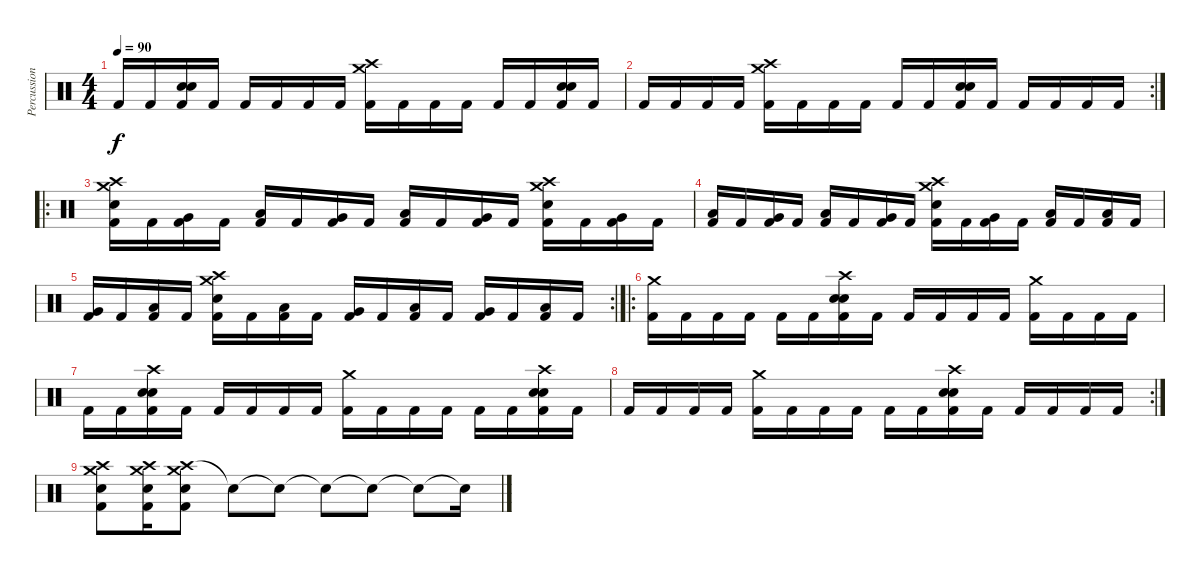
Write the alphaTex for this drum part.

\track ("Percussions" "Percussion") {instrument percussion}
\staff {score}
\articulation defaults
\ts (4 4)
\tempo 90
\clef neutral
\ks c "Kick (hit) 2".16{dy f} "Kick (hit) 2".16
("Electric Snare (hit)" "Snare (hit) 2" "Kick (hit) 2").16 "Kick (hit) 2".16 "Kick (hit) 2".16 "Kick (hit) 2".16 "Kick (hit) 2".16 "Kick (hit) 2".16 ("Crash medium (hit)" "Crash high (hit)" "Kick (hit) 2").16 "Kick (hit) 2".16 "Kick (hit) 2".16 "Kick (hit) 2".16 "Kick (hit) 2".16 "Kick (hit) 2".16 ("Electric Snare (hit)" "Snare (hit) 2" "Kick (hit) 2").16 "Kick (hit) 2".16 |
\rc 2 "Kick (hit) 2".16 "Kick (hit) 2".16 "Kick (hit) 2".16 "Kick (hit) 2".16
("Crash medium (hit)" "Crash high (hit)" "Kick (hit) 2").16 "Kick (hit) 2".16 "Kick (hit) 2".16 "Kick (hit) 2".16 "Kick (hit) 2".16 "Kick (hit) 2".16 ("Electric Snare (hit)" "Snare (hit) 2" "Kick (hit) 2").16 "Kick (hit) 2".16 "Kick (hit) 2".16 "Kick (hit) 2".16 "Kick (hit) 2".16 "Kick (hit) 2".16 |
\ro
("Electric Snare (hit)" "Crash medium (hit)" "Crash high (hit)" "Kick (hit) 2").16 "Kick (hit) 2".16 ("Very Low Tom (hit)" "Kick (hit) 2").16 "Kick (hit) 2".16 ("Low Tom (hit)" "Kick (hit) 2").16 "Kick (hit) 2".16 ("Very Low Tom (hit)" "Kick (hit) 2").16 "Kick (hit) 2".16 ("Low Tom (hit)" "Kick (hit) 2").16 "Kick (hit) 2".16 ("Very Low Tom (hit)" "Kick (hit) 2").16 "Kick (hit) 2".16 ("Electric Snare (hit)" "Crash medium (hit)" "Crash high (hit)" "Kick (hit) 2").16 "Kick (hit) 2".16 ("Very Low Tom (hit)" "Kick (hit) 2").16 "Kick (hit) 2".16 |
("Low Tom (hit)" "Kick (hit) 2").16 "Kick (hit) 2".16 ("Very Low Tom (hit)" "Kick (hit) 2").16 "Kick (hit) 2".16 ("Low Floor Tom (hit)" "Kick (hit) 2").16 "Kick (hit) 2".16 ("Very Low Tom (hit)" "Kick (hit) 2").16 "Kick (hit) 2".16 ("Electric Snare (hit)" "Crash medium (hit)" "Crash high (hit)" "Kick (hit) 2").16 "Kick (hit) 2".16 ("Very Low Tom (hit)" "Kick (hit) 2").16 "Kick (hit) 2".16 ("Low Tom (hit)" "Kick (hit) 2").16 "Kick (hit) 2".16 ("Low Floor Tom (hit)" "Kick (hit) 2").16 "Kick (hit) 2".16 |
\rc 2
("Very Low Tom (hit)" "Kick (hit) 2").16 "Kick (hit) 2".16 ("Low Tom (hit)" "Kick (hit) 2").16 "Kick (hit) 2".16 ("Electric Snare (hit)" "Crash medium (hit)" "Crash high (hit)" "Kick (hit) 2").16 "Kick (hit) 2".16 ("Low Tom (hit)" "Kick (hit) 2").16 "Kick (hit) 2".16 ("Very Low Tom (hit)" "Kick (hit) 2").16 "Kick (hit) 2".16 ("Low Tom (hit)" "Kick (hit) 2").16 "Kick (hit) 2".16 ("Very Low Tom (hit)" "Kick (hit) 2").16 "Kick (hit) 2".16 ("Low Floor Tom (hit)" "Kick (hit) 2").16 "Kick (hit) 2".16 |
\ro
("Crash medium (hit)" "Kick (hit) 2").16 "Kick (hit) 2".16 "Kick (hit) 2".16 "Kick (hit) 2".16 "Kick (hit) 2".16 "Kick (hit) 2".16 ("Crash high (hit)" "Electric Snare (hit)" "Snare (hit) 2" "Kick (hit) 2").16 "Kick (hit) 2".16 "Kick (hit) 2".16 "Kick (hit) 2".16 "Kick (hit) 2".16 "Kick (hit) 2".16 ("Crash medium (hit)" "Kick (hit) 2").16 "Kick (hit) 2".16 "Kick (hit) 2".16 "Kick (hit) 2".16 |
"Kick (hit) 2".16 "Kick (hit) 2".16 ("Crash high (hit)" "Electric Snare (hit)" "Snare (hit) 2" "Kick (hit) 2").16 "Kick (hit) 2".16 "Kick (hit) 2".16 "Kick (hit) 2".16 "Kick (hit) 2".16 "Kick (hit) 2".16 ("Crash medium (hit)" "Kick (hit) 2").16 "Kick (hit) 2".16 "Kick (hit) 2".16 "Kick (hit) 2".16 "Kick (hit) 2".16 "Kick (hit) 2".16 ("Crash high (hit)" "Electric Snare (hit)" "Snare (hit) 2" "Kick (hit) 2").16 "Kick (hit) 2".16 |
\rc 2 "Kick (hit) 2".16 "Kick (hit) 2".16 "Kick (hit) 2".16 "Kick (hit) 2".16
("Crash medium (hit)" "Kick (hit) 2").16 "Kick (hit) 2".16 "Kick (hit) 2".16 "Kick (hit) 2".16 "Kick (hit) 2".16 "Kick (hit) 2".16 ("Crash high (hit)" "Electric Snare (hit)" "Snare (hit) 2" "Kick (hit) 2").16 "Kick (hit) 2".16 "Kick (hit) 2".16 "Kick (hit) 2".16 "Kick (hit) 2".16 "Kick (hit) 2".16 |
("Crash high (hit)" "Crash medium (hit)" "Electric Snare (hit)" "Kick (hit) 2").8 ("Crash high (hit)" "Crash medium (hit)" "Electric Snare (hit)" "Kick (hit) 2").16 ("Crash high (hit)" "Crash medium (hit)" "Electric Snare (hit)" "Kick (hit) 2").8 "Snare (hit)"{t}.8 "Snare (hit)"{t}.8 "Snare (hit)"{t}.8 "Snare (hit)"{t}.8 "Snare (hit)"{t}.8 "Snare (hit)"{t}.16
